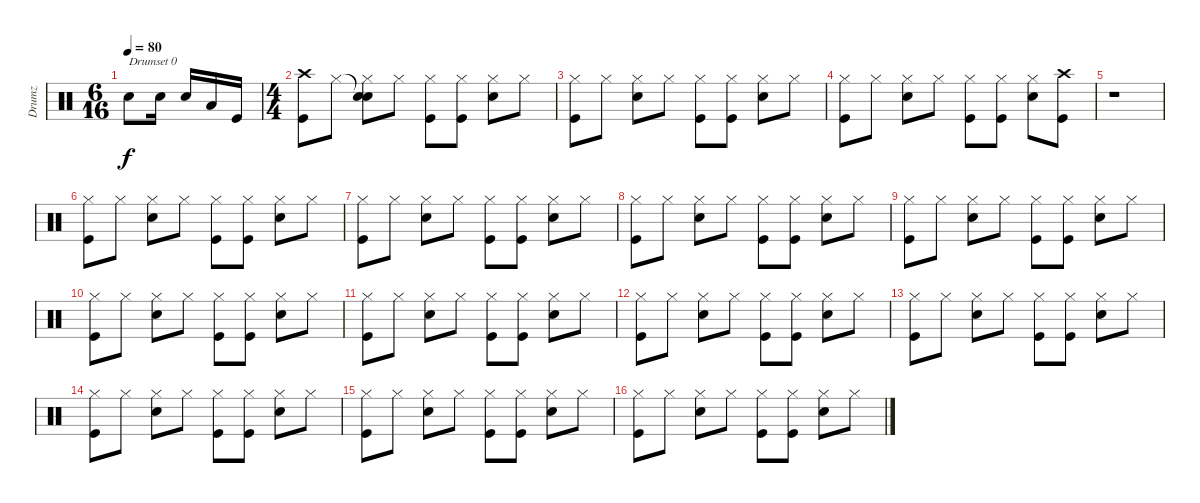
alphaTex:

\track ("Drumz" "Drumz") {instrument percussion}
\staff {score}
\articulation defaults
\ts (6 16)
\tempo 80
\clef neutral
\ks c "Electric Snare (hit)".8{txt "Drumset 0" dy f} "Electric Snare (hit)".16 "Electric Snare (hit)".16 "Low Tom (hit)".16 "Kick (hit)".16
|
\ts (4 4)
("Crash high (hit)" "Kick (hit)").8 "Hi-Hat (closed)".8 ("Snare (hit)"{t} "Hi-Hat (closed)" "Electric Snare (hit)").8 "Hi-Hat (closed)".8 ("Hi-Hat (closed)" "Kick (hit)").8 ("Hi-Hat (closed)" "Kick (hit)").8 ("Hi-Hat (closed)" "Electric Snare (hit)").8 "Hi-Hat (closed)".8 |
("Hi-Hat (closed)" "Kick (hit)").8 "Hi-Hat (closed)".8 ("Hi-Hat (closed)" "Electric Snare (hit)").8 "Hi-Hat (closed)".8 ("Hi-Hat (closed)" "Kick (hit)").8 ("Hi-Hat (closed)" "Kick (hit)").8 ("Hi-Hat (closed)" "Electric Snare (hit)").8 "Hi-Hat (closed)".8 |
("Hi-Hat (closed)" "Kick (hit)").8 "Hi-Hat (closed)".8 ("Hi-Hat (closed)" "Electric Snare (hit)").8 "Hi-Hat (closed)".8 ("Hi-Hat (closed)" "Kick (hit)").8 ("Hi-Hat (closed)" "Kick (hit)").8 ("Hi-Hat (closed)" "Electric Snare (hit)").8 ("Crash high (hit)" "Kick (hit)").8 |
r.1 |
("Hi-Hat (closed)" "Kick (hit)").8 "Hi-Hat (closed)".8 ("Hi-Hat (closed)" "Electric Snare (hit)").8 "Hi-Hat (closed)".8 ("Hi-Hat (closed)" "Kick (hit)").8 ("Hi-Hat (closed)" "Kick (hit)").8 ("Hi-Hat (closed)" "Electric Snare (hit)").8 "Hi-Hat (closed)".8 |
("Hi-Hat (closed)" "Kick (hit)").8 "Hi-Hat (closed)".8 ("Hi-Hat (closed)" "Electric Snare (hit)").8 "Hi-Hat (closed)".8 ("Hi-Hat (closed)" "Kick (hit)").8 ("Hi-Hat (closed)" "Kick (hit)").8 ("Hi-Hat (closed)" "Electric Snare (hit)").8 "Hi-Hat (closed)".8 |
("Hi-Hat (closed)" "Kick (hit)").8 "Hi-Hat (closed)".8 ("Hi-Hat (closed)" "Electric Snare (hit)").8 "Hi-Hat (closed)".8 ("Hi-Hat (closed)" "Kick (hit)").8 ("Hi-Hat (closed)" "Kick (hit)").8 ("Hi-Hat (closed)" "Electric Snare (hit)").8 "Hi-Hat (closed)".8 |
("Hi-Hat (closed)" "Kick (hit)").8 "Hi-Hat (closed)".8 ("Hi-Hat (closed)" "Electric Snare (hit)").8 "Hi-Hat (closed)".8 ("Hi-Hat (closed)" "Kick (hit)").8 ("Hi-Hat (closed)" "Kick (hit)").8 ("Hi-Hat (closed)" "Electric Snare (hit)").8 "Hi-Hat (closed)".8 |
("Hi-Hat (closed)" "Kick (hit)").8 "Hi-Hat (closed)".8 ("Hi-Hat (closed)" "Electric Snare (hit)").8 "Hi-Hat (closed)".8 ("Hi-Hat (closed)" "Kick (hit)").8 ("Hi-Hat (closed)" "Kick (hit)").8 ("Hi-Hat (closed)" "Electric Snare (hit)").8 "Hi-Hat (closed)".8 |
("Hi-Hat (closed)" "Kick (hit)").8 "Hi-Hat (closed)".8 ("Hi-Hat (closed)" "Electric Snare (hit)").8 "Hi-Hat (closed)".8 ("Hi-Hat (closed)" "Kick (hit)").8 ("Hi-Hat (closed)" "Kick (hit)").8 ("Hi-Hat (closed)" "Electric Snare (hit)").8 "Hi-Hat (closed)".8 |
("Hi-Hat (closed)" "Kick (hit)").8 "Hi-Hat (closed)".8 ("Hi-Hat (closed)" "Electric Snare (hit)").8 "Hi-Hat (closed)".8 ("Hi-Hat (closed)" "Kick (hit)").8 ("Hi-Hat (closed)" "Kick (hit)").8 ("Hi-Hat (closed)" "Electric Snare (hit)").8 "Hi-Hat (closed)".8 |
("Hi-Hat (closed)" "Kick (hit)").8 "Hi-Hat (closed)".8 ("Hi-Hat (closed)" "Electric Snare (hit)").8 "Hi-Hat (closed)".8 ("Hi-Hat (closed)" "Kick (hit)").8 ("Hi-Hat (closed)" "Kick (hit)").8 ("Hi-Hat (closed)" "Electric Snare (hit)").8 "Hi-Hat (closed)".8 |
("Hi-Hat (closed)" "Kick (hit)").8 "Hi-Hat (closed)".8 ("Hi-Hat (closed)" "Electric Snare (hit)").8 "Hi-Hat (closed)".8 ("Hi-Hat (closed)" "Kick (hit)").8 ("Hi-Hat (closed)" "Kick (hit)").8 ("Hi-Hat (closed)" "Electric Snare (hit)").8 "Hi-Hat (closed)".8 |
("Hi-Hat (closed)" "Kick (hit)").8 "Hi-Hat (closed)".8 ("Hi-Hat (closed)" "Electric Snare (hit)").8 "Hi-Hat (closed)".8 ("Hi-Hat (closed)" "Kick (hit)").8 ("Hi-Hat (closed)" "Kick (hit)").8 ("Hi-Hat (closed)" "Electric Snare (hit)").8 "Hi-Hat (closed)".8 |
("Hi-Hat (closed)" "Kick (hit)").8 "Hi-Hat (closed)".8 ("Hi-Hat (closed)" "Electric Snare (hit)").8 "Hi-Hat (closed)".8 ("Hi-Hat (closed)" "Kick (hit)").8 ("Hi-Hat (closed)" "Kick (hit)").8 ("Hi-Hat (closed)" "Electric Snare (hit)").8 "Hi-Hat (closed)".8
